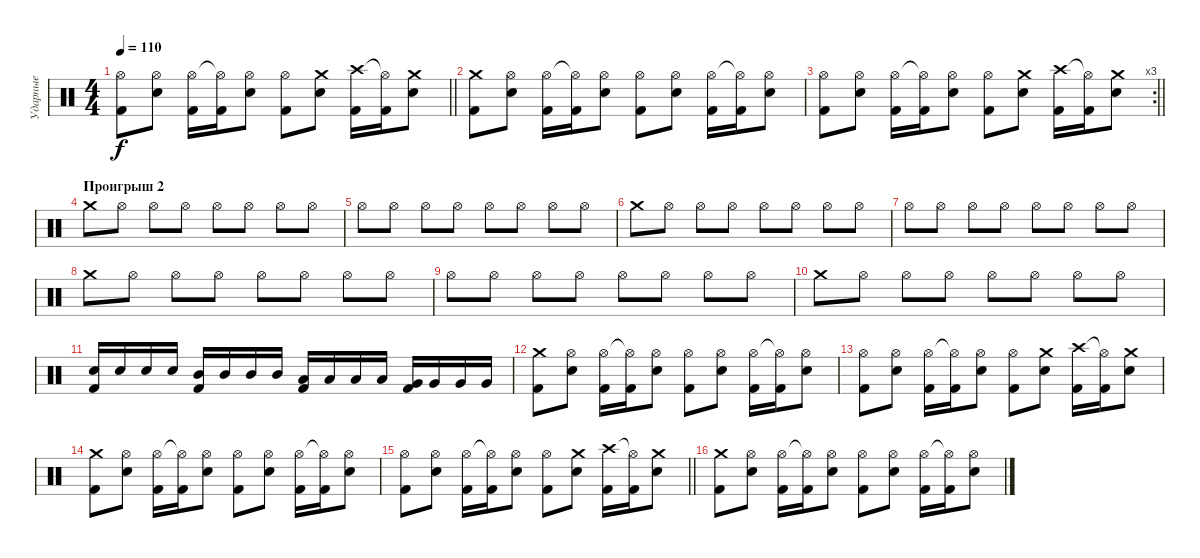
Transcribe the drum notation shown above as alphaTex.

\track ("Ударные" "Ударные") {instrument percussion}
\staff {score}
\articulation defaults
\ts (4 4)
\tempo 110
\clef neutral
\barLineRight lightlight
\ks c
("Hi-Hat (open)" "Kick (hit) 2").8{dy f} ("Hi-Hat (open)" "Snare (hit) 2").8 ("Hi-Hat (open)" "Kick (hit) 2").16 ("Hi-Hat (open)"{t} "Kick (hit) 2").16 ("Hi-Hat (open)" "Snare (hit) 2").8 ("Hi-Hat (open)" "Kick (hit) 2").8 ("Crash medium (hit)" "Snare (hit) 2").8 ("Crash high (hit)" "Kick (hit) 2").16 ("Hi-Hat (open)"{t} "Kick (hit) 2").16 ("Crash medium (hit)" "Snare (hit) 2").8 |
("Crash medium (hit)" "Kick (hit) 2").8 ("Hi-Hat (open)" "Snare (hit) 2").8 ("Hi-Hat (open)" "Kick (hit) 2").16 ("Hi-Hat (open)"{t} "Kick (hit) 2").16 ("Hi-Hat (open)" "Snare (hit) 2").8 ("Hi-Hat (open)" "Kick (hit) 2").8 ("Hi-Hat (open)" "Snare (hit) 2").8 ("Hi-Hat (open)" "Kick (hit) 2").16 ("Hi-Hat (open)"{t} "Kick (hit) 2").16 ("Hi-Hat (open)" "Snare (hit) 2").8 |
\rc 3
\barLineRight lightlight
("Hi-Hat (open)" "Kick (hit) 2").8 ("Hi-Hat (open)" "Snare (hit) 2").8 ("Hi-Hat (open)" "Kick (hit) 2").16 ("Hi-Hat (open)"{t} "Kick (hit) 2").16 ("Hi-Hat (open)" "Snare (hit) 2").8 ("Hi-Hat (open)" "Kick (hit) 2").8 ("Crash medium (hit)" "Snare (hit) 2").8 ("Crash high (hit)" "Kick (hit) 2").16 ("Hi-Hat (open)"{t} "Kick (hit) 2").16 ("Crash medium (hit)" "Snare (hit) 2").8 |
\section ("" "Проигрыш 2")
"Crash medium (hit)".8 "Hi-Hat (open)".8 "Hi-Hat (open)".8 "Hi-Hat (open)".8 "Hi-Hat (open)".8 "Hi-Hat (open)".8 "Hi-Hat (open)".8 "Hi-Hat (open)".8 |
"Hi-Hat (open)".8 "Hi-Hat (open)".8 "Hi-Hat (open)".8 "Hi-Hat (open)".8 "Hi-Hat (open)".8 "Hi-Hat (open)".8 "Hi-Hat (open)".8 "Hi-Hat (open)".8 |
"Crash medium (hit)".8 "Hi-Hat (open)".8 "Hi-Hat (open)".8 "Hi-Hat (open)".8 "Hi-Hat (open)".8 "Hi-Hat (open)".8 "Hi-Hat (open)".8 "Hi-Hat (open)".8 |
"Hi-Hat (open)".8 "Hi-Hat (open)".8 "Hi-Hat (open)".8 "Hi-Hat (open)".8 "Hi-Hat (open)".8 "Hi-Hat (open)".8 "Hi-Hat (open)".8 "Hi-Hat (open)".8 |
"Crash medium (hit)".8 "Hi-Hat (open)".8 "Hi-Hat (open)".8 "Hi-Hat (open)".8 "Hi-Hat (open)".8 "Hi-Hat (open)".8 "Hi-Hat (open)".8 "Hi-Hat (open)".8 |
"Hi-Hat (open)".8 "Hi-Hat (open)".8 "Hi-Hat (open)".8 "Hi-Hat (open)".8 "Hi-Hat (open)".8 "Hi-Hat (open)".8 "Hi-Hat (open)".8 "Hi-Hat (open)".8 |
"Crash medium (hit)".8 "Hi-Hat (open)".8 "Hi-Hat (open)".8 "Hi-Hat (open)".8 "Hi-Hat (open)".8 "Hi-Hat (open)".8 "Hi-Hat (open)".8 "Hi-Hat (open)".8 |
("Snare (hit) 2" "Kick (hit) 2").16 "Snare (hit) 2".16 "Snare (hit) 2".16 "Snare (hit) 2".16 ("Mid Tom (hit)" "Kick (hit) 2").16 "Mid Tom (hit)".16 "Mid Tom (hit)".16 "Mid Tom (hit)".16 ("Low Tom (hit)" "Kick (hit) 2").16 "Low Tom (hit)".16 "Low Tom (hit)".16 "Low Tom (hit)".16 ("Very Low Tom (hit)" "Kick (hit) 2").16 "Very Low Tom (hit)".16 "Very Low Tom (hit)".16 "Very Low Tom (hit)".16 |
("Crash medium (hit)" "Kick (hit) 2").8 ("Hi-Hat (open)" "Snare (hit) 2").8 ("Hi-Hat (open)" "Kick (hit) 2").16 ("Hi-Hat (open)"{t} "Kick (hit) 2").16 ("Hi-Hat (open)" "Snare (hit) 2").8 ("Hi-Hat (open)" "Kick (hit) 2").8 ("Hi-Hat (open)" "Snare (hit) 2").8 ("Hi-Hat (open)" "Kick (hit) 2").16 ("Hi-Hat (open)"{t} "Kick (hit) 2").16 ("Hi-Hat (open)" "Snare (hit) 2").8 |
("Hi-Hat (open)" "Kick (hit) 2").8 ("Hi-Hat (open)" "Snare (hit) 2").8 ("Hi-Hat (open)" "Kick (hit) 2").16 ("Hi-Hat (open)"{t} "Kick (hit) 2").16 ("Hi-Hat (open)" "Snare (hit) 2").8 ("Hi-Hat (open)" "Kick (hit) 2").8 ("Crash medium (hit)" "Snare (hit) 2").8 ("Crash high (hit)" "Kick (hit) 2").16 ("Hi-Hat (open)"{t} "Kick (hit) 2").16 ("Crash medium (hit)" "Snare (hit) 2").8 |
("Crash medium (hit)" "Kick (hit) 2").8 ("Hi-Hat (open)" "Snare (hit) 2").8 ("Hi-Hat (open)" "Kick (hit) 2").16 ("Hi-Hat (open)"{t} "Kick (hit) 2").16 ("Hi-Hat (open)" "Snare (hit) 2").8 ("Hi-Hat (open)" "Kick (hit) 2").8 ("Hi-Hat (open)" "Snare (hit) 2").8 ("Hi-Hat (open)" "Kick (hit) 2").16 ("Hi-Hat (open)"{t} "Kick (hit) 2").16 ("Hi-Hat (open)" "Snare (hit) 2").8 |
\barLineRight lightlight
("Hi-Hat (open)" "Kick (hit) 2").8 ("Hi-Hat (open)" "Snare (hit) 2").8 ("Hi-Hat (open)" "Kick (hit) 2").16 ("Hi-Hat (open)"{t} "Kick (hit) 2").16 ("Hi-Hat (open)" "Snare (hit) 2").8 ("Hi-Hat (open)" "Kick (hit) 2").8 ("Crash medium (hit)" "Snare (hit) 2").8 ("Crash high (hit)" "Kick (hit) 2").16 ("Hi-Hat (open)"{t} "Kick (hit) 2").16 ("Crash medium (hit)" "Snare (hit) 2").8 |
("Crash medium (hit)" "Kick (hit) 2").8 ("Hi-Hat (open)" "Snare (hit) 2").8 ("Hi-Hat (open)" "Kick (hit) 2").16 ("Hi-Hat (open)"{t} "Kick (hit) 2").16 ("Hi-Hat (open)" "Snare (hit) 2").8 ("Hi-Hat (open)" "Kick (hit) 2").8 ("Hi-Hat (open)" "Snare (hit) 2").8 ("Hi-Hat (open)" "Kick (hit) 2").16 ("Hi-Hat (open)"{t} "Kick (hit) 2").16 ("Hi-Hat (open)" "Snare (hit) 2").8
